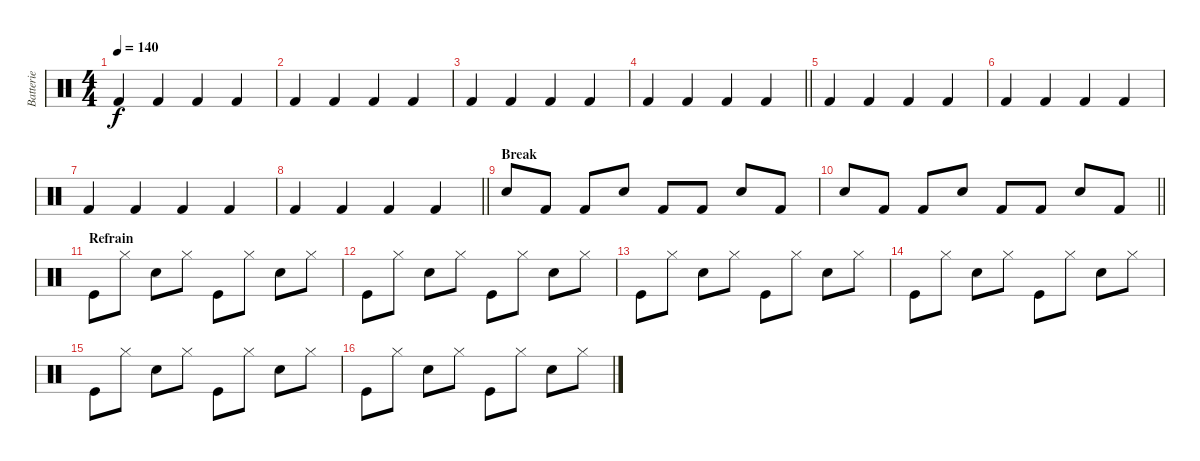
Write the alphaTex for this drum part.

\track ("Batterie" "Batterie") {instrument percussion}
\staff {score}
\articulation defaults
\ts (4 4)
\tempo 140
\clef neutral
\ks c "Kick (hit) 2".4{dy f} "Kick (hit) 2".4 "Kick (hit) 2".4 "Kick (hit) 2".4
|
"Kick (hit) 2".4 "Kick (hit) 2".4 "Kick (hit) 2".4 "Kick (hit) 2".4 |
"Kick (hit) 2".4 "Kick (hit) 2".4 "Kick (hit) 2".4 "Kick (hit) 2".4 |
\barLineRight lightlight "Kick (hit) 2".4 "Kick (hit) 2".4 "Kick (hit) 2".4 "Kick (hit) 2".4
|
"Kick (hit) 2".4 "Kick (hit) 2".4 "Kick (hit) 2".4 "Kick (hit) 2".4 |
"Kick (hit) 2".4 "Kick (hit) 2".4 "Kick (hit) 2".4 "Kick (hit) 2".4 |
"Kick (hit) 2".4 "Kick (hit) 2".4 "Kick (hit) 2".4 "Kick (hit) 2".4 |
\barLineRight lightlight "Kick (hit) 2".4 "Kick (hit) 2".4 "Kick (hit) 2".4 "Kick (hit) 2".4
|
\section ("" "Break")
"Electric Snare (hit)".8 "Kick (hit) 2".8 "Kick (hit) 2".8 "Electric Snare (hit)".8 "Kick (hit) 2".8 "Kick (hit) 2".8 "Electric Snare (hit)".8 "Kick (hit) 2".8 |
\barLineRight lightlight "Electric Snare (hit)".8 "Kick (hit) 2".8 "Kick (hit) 2".8 "Electric Snare (hit)".8 "Kick (hit) 2".8 "Kick (hit) 2".8 "Electric Snare (hit)".8 "Kick (hit) 2".8
|
\section ("" "Refrain")
"Kick (hit)".8 "Hi-Hat (closed)".8 "Snare (hit) 2".8 "Hi-Hat (closed)".8 "Kick (hit)".8 "Hi-Hat (closed)".8 "Snare (hit) 2".8 "Hi-Hat (closed)".8 |
"Kick (hit)".8 "Hi-Hat (closed)".8 "Snare (hit) 2".8 "Hi-Hat (closed)".8 "Kick (hit)".8 "Hi-Hat (closed)".8 "Snare (hit) 2".8 "Hi-Hat (closed)".8 |
"Kick (hit)".8 "Hi-Hat (closed)".8 "Snare (hit) 2".8 "Hi-Hat (closed)".8 "Kick (hit)".8 "Hi-Hat (closed)".8 "Snare (hit) 2".8 "Hi-Hat (closed)".8 |
"Kick (hit)".8 "Hi-Hat (closed)".8 "Snare (hit) 2".8 "Hi-Hat (closed)".8 "Kick (hit)".8 "Hi-Hat (closed)".8 "Snare (hit) 2".8 "Hi-Hat (closed)".8 |
"Kick (hit)".8 "Hi-Hat (closed)".8 "Snare (hit) 2".8 "Hi-Hat (closed)".8 "Kick (hit)".8 "Hi-Hat (closed)".8 "Snare (hit) 2".8 "Hi-Hat (closed)".8 |
"Kick (hit)".8 "Hi-Hat (closed)".8 "Snare (hit) 2".8 "Hi-Hat (closed)".8 "Kick (hit)".8 "Hi-Hat (closed)".8 "Snare (hit) 2".8 "Hi-Hat (closed)".8
